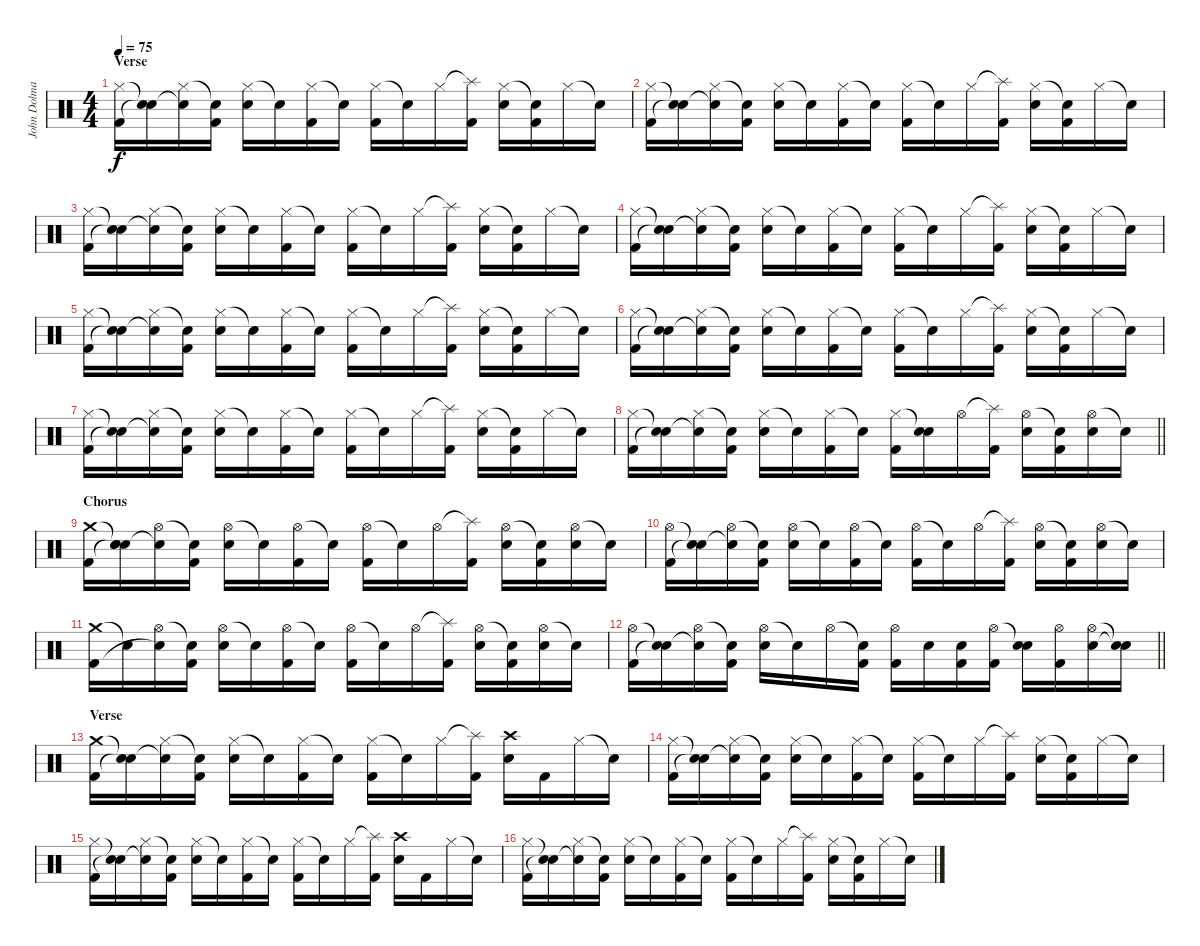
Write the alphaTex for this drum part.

\track ("John Dolmayan (drums)" "John Dolma") {instrument percussion}
\staff
\articulation defaults
\ts (4 4)
\section ("" "Verse")
\tempo 75
\clef neutral
\ks c
("Hi-Hat (closed)" "Kick (hit) 2").16{dy f} ("Snare (hit)"{t} "Snare (hit)"{t}).16 ("Hi-Hat (closed)" "Snare (hit)"{t}).16 ("Snare (hit)"{t} "Kick (hit) 2").16 ("Hi-Hat (closed)" "Electric Snare (hit)").16 "Snare (hit)"{t}.16 ("Hi-Hat (closed)" "Kick (hit) 2").16 "Snare (hit)"{t}.16 ("Hi-Hat (closed)" "Kick (hit) 2").16 "Snare (hit)"{t}.16 "Hi-Hat (closed)".16 ("Splash (hit)"{t} "Kick (hit) 2").16 ("Hi-Hat (closed)" "Electric Snare (hit)").16 ("Snare (hit)"{t} "Kick (hit) 2").16 "Hi-Hat (closed)".16 "Snare (hit)"{t}.16 |
("Hi-Hat (closed)" "Kick (hit) 2").16 ("Snare (hit)"{t} "Snare (hit)"{t}).16 ("Hi-Hat (closed)" "Snare (hit)"{t}).16 ("Snare (hit)"{t} "Kick (hit) 2").16 ("Hi-Hat (closed)" "Electric Snare (hit)").16 "Snare (hit)"{t}.16 ("Hi-Hat (closed)" "Kick (hit) 2").16 "Snare (hit)"{t}.16 ("Hi-Hat (closed)" "Kick (hit) 2").16 "Snare (hit)"{t}.16 "Hi-Hat (closed)".16 ("Splash (hit)"{t} "Kick (hit) 2").16 ("Hi-Hat (closed)" "Electric Snare (hit)").16 ("Snare (hit)"{t} "Kick (hit) 2").16 "Hi-Hat (closed)".16 "Snare (hit)"{t}.16 |
("Hi-Hat (closed)" "Kick (hit) 2").16 ("Snare (hit)"{t} "Snare (hit)"{t}).16 ("Hi-Hat (closed)" "Snare (hit)"{t}).16 ("Snare (hit)"{t} "Kick (hit) 2").16 ("Hi-Hat (closed)" "Electric Snare (hit)").16 "Snare (hit)"{t}.16 ("Hi-Hat (closed)" "Kick (hit) 2").16 "Snare (hit)"{t}.16 ("Hi-Hat (closed)" "Kick (hit) 2").16 "Snare (hit)"{t}.16 "Hi-Hat (closed)".16 ("Splash (hit)"{t} "Kick (hit) 2").16 ("Hi-Hat (closed)" "Electric Snare (hit)").16 ("Snare (hit)"{t} "Kick (hit) 2").16 "Hi-Hat (closed)".16 "Snare (hit)"{t}.16 |
("Hi-Hat (closed)" "Kick (hit) 2").16 ("Snare (hit)"{t} "Snare (hit)"{t}).16 ("Hi-Hat (closed)" "Snare (hit)"{t}).16 ("Snare (hit)"{t} "Kick (hit) 2").16 ("Hi-Hat (closed)" "Electric Snare (hit)").16 "Snare (hit)"{t}.16 ("Hi-Hat (closed)" "Kick (hit) 2").16 "Snare (hit)"{t}.16 ("Hi-Hat (closed)" "Kick (hit) 2").16 "Snare (hit)"{t}.16 "Hi-Hat (closed)".16 ("Splash (hit)"{t} "Kick (hit) 2").16 ("Hi-Hat (closed)" "Electric Snare (hit)").16 ("Snare (hit)"{t} "Kick (hit) 2").16 "Hi-Hat (closed)".16 "Snare (hit)"{t}.16 |
("Hi-Hat (closed)" "Kick (hit) 2").16 ("Snare (hit)"{t} "Snare (hit)"{t}).16 ("Hi-Hat (closed)" "Snare (hit)"{t}).16 ("Snare (hit)"{t} "Kick (hit) 2").16 ("Hi-Hat (closed)" "Electric Snare (hit)").16 "Snare (hit)"{t}.16 ("Hi-Hat (closed)" "Kick (hit) 2").16 "Snare (hit)"{t}.16 ("Hi-Hat (closed)" "Kick (hit) 2").16 "Snare (hit)"{t}.16 "Hi-Hat (closed)".16 ("Splash (hit)"{t} "Kick (hit) 2").16 ("Hi-Hat (closed)" "Electric Snare (hit)").16 ("Snare (hit)"{t} "Kick (hit) 2").16 "Hi-Hat (closed)".16 "Snare (hit)"{t}.16 |
("Hi-Hat (closed)" "Kick (hit) 2").16 ("Snare (hit)"{t} "Snare (hit)"{t}).16 ("Hi-Hat (closed)" "Snare (hit)"{t}).16 ("Snare (hit)"{t} "Kick (hit) 2").16 ("Hi-Hat (closed)" "Electric Snare (hit)").16 "Snare (hit)"{t}.16 ("Hi-Hat (closed)" "Kick (hit) 2").16 "Snare (hit)"{t}.16 ("Hi-Hat (closed)" "Kick (hit) 2").16 "Snare (hit)"{t}.16 "Hi-Hat (closed)".16 ("Splash (hit)"{t} "Kick (hit) 2").16 ("Hi-Hat (closed)" "Electric Snare (hit)").16 ("Snare (hit)"{t} "Kick (hit) 2").16 "Hi-Hat (closed)".16 "Snare (hit)"{t}.16 |
("Hi-Hat (closed)" "Kick (hit) 2").16 ("Snare (hit)"{t} "Snare (hit)"{t}).16 ("Hi-Hat (closed)" "Snare (hit)"{t}).16 ("Snare (hit)"{t} "Kick (hit) 2").16 ("Hi-Hat (closed)" "Electric Snare (hit)").16 "Snare (hit)"{t}.16 ("Hi-Hat (closed)" "Kick (hit) 2").16 "Snare (hit)"{t}.16 ("Hi-Hat (closed)" "Kick (hit) 2").16 "Snare (hit)"{t}.16 "Hi-Hat (closed)".16 ("Splash (hit)"{t} "Kick (hit) 2").16 ("Hi-Hat (closed)" "Electric Snare (hit)").16 ("Snare (hit)"{t} "Kick (hit) 2").16 "Hi-Hat (closed)".16 "Snare (hit)"{t}.16 |
\barLineRight lightlight
("Hi-Hat (closed)" "Kick (hit) 2").16 ("Snare (hit)"{t} "Snare (hit)"{t}).16 ("Hi-Hat (closed)" "Snare (hit)"{t}).16 ("Snare (hit)"{t} "Kick (hit) 2").16 ("Hi-Hat (closed)" "Electric Snare (hit)").16 "Snare (hit)"{t}.16 ("Hi-Hat (closed)" "Kick (hit) 2").16 "Snare (hit)"{t}.16 ("Hi-Hat (closed)" "Kick (hit) 2").16 ("Snare (hit)"{t} "Electric Snare (hit)").16 "Hi-Hat (open)".16 ("Splash (hit)"{t} "Kick (hit) 2").16 ("Hi-Hat (open)" "Electric Snare (hit)").16 ("Snare (hit)"{t} "Kick (hit) 2").16 ("Hi-Hat (open)" "Electric Snare (hit)").16 "Snare (hit)"{t}.16 |
\section ("" "Chorus")
("Crash medium (hit)" "Kick (hit) 2").16 ("Snare (hit)"{t} "Snare (hit)"{t} "Snare (hit)").16 ("Hi-Hat (open)" "Snare (hit)"{t}).16 ("Snare (hit)"{t} "Kick (hit) 2").16 ("Hi-Hat (open)" "Electric Snare (hit)").16 "Snare (hit)"{t}.16 ("Hi-Hat (open)" "Kick (hit) 2").16 "Snare (hit)"{t}.16 ("Hi-Hat (open)" "Kick (hit) 2").16 "Snare (hit)"{t}.16 "Hi-Hat (open)".16 ("Splash (hit)"{t} "Kick (hit) 2").16 ("Hi-Hat (open)" "Electric Snare (hit)").16 ("Snare (hit)"{t} "Kick (hit) 2").16 ("Hi-Hat (open)" "Electric Snare (hit)").16 "Snare (hit)"{t}.16 |
("Hi-Hat (open)" "Kick (hit) 2").16 ("Snare (hit)"{t} "Snare (hit)"{t}).16 ("Hi-Hat (open)" "Snare (hit)"{t}).16 ("Snare (hit)"{t} "Kick (hit) 2").16 ("Hi-Hat (open)" "Electric Snare (hit)").16 "Snare (hit)"{t}.16 ("Hi-Hat (open)" "Kick (hit) 2").16 "Snare (hit)"{t}.16 ("Hi-Hat (open)" "Kick (hit) 2").16 "Snare (hit)"{t}.16 "Hi-Hat (open)".16 ("Splash (hit)"{t} "Kick (hit) 2").16 ("Hi-Hat (open)" "Electric Snare (hit)").16 ("Snare (hit)"{t} "Kick (hit) 2").16 ("Hi-Hat (open)" "Electric Snare (hit)").16 "Snare (hit)"{t}.16 |
("Crash medium (hit)" "Kick (hit) 2").16 "Snare (hit)"{t}.16 ("Hi-Hat (open)" "Snare (hit)"{t}).16 ("Snare (hit)"{t} "Kick (hit) 2").16 ("Hi-Hat (open)" "Electric Snare (hit)").16 "Snare (hit)"{t}.16 ("Hi-Hat (open)" "Kick (hit) 2").16 "Snare (hit)"{t}.16 ("Hi-Hat (open)" "Kick (hit) 2").16 "Snare (hit)"{t}.16 "Hi-Hat (open)".16 ("Splash (hit)"{t} "Kick (hit) 2").16 ("Hi-Hat (open)" "Electric Snare (hit)").16 ("Snare (hit)"{t} "Kick (hit) 2").16 ("Hi-Hat (open)" "Electric Snare (hit)").16 "Snare (hit)"{t}.16 |
\barLineRight lightlight
("Hi-Hat (open)" "Kick (hit) 2").16 ("Snare (hit)"{t} "Snare (hit)"{t}).16 ("Hi-Hat (open)" "Snare (hit)"{t}).16 ("Snare (hit)"{t} "Kick (hit) 2").16 ("Hi-Hat (open)" "Electric Snare (hit)").16 "Snare (hit)"{t}.16 "Hi-Hat (open)".16 ("Snare (hit)"{t} "Kick (hit) 2").16 ("Hi-Hat (open)" "Kick (hit) 2").16 "Electric Snare (hit)".16 ("Electric Snare (hit)" "Kick (hit) 2").16 ("Hi-Hat (open)" "Kick (hit) 2").16 ("Snare (hit)"{t} "Electric Snare (hit)").16 ("Hi-Hat (open)" "Kick (hit) 2").16 ("Hi-Hat (open)" "Electric Snare (hit)").16 ("Snare (hit)"{t} "Electric Snare (hit)"{t}).16 |
\section ("" "Verse")
("Crash medium (hit)" "Kick (hit) 2").16 ("Snare (hit)"{t} "Snare (hit)"{t}).16 ("Hi-Hat (closed)" "Snare (hit)"{t}).16 ("Snare (hit)"{t} "Kick (hit) 2").16 ("Hi-Hat (closed)" "Electric Snare (hit)").16 "Snare (hit)"{t}.16 ("Hi-Hat (closed)" "Kick (hit) 2").16 "Snare (hit)"{t}.16 ("Hi-Hat (closed)" "Kick (hit) 2").16 "Snare (hit)"{t}.16 "Hi-Hat (closed)".16 ("Splash (hit)"{t} "Kick (hit) 2").16 ("Crash high (hit)" "Electric Snare (hit)").16 "Kick (hit) 2".16 "Hi-Hat (closed)".16 "Snare (hit)"{t}.16 |
("Hi-Hat (closed)" "Kick (hit) 2").16 ("Snare (hit)"{t} "Snare (hit)"{t}).16 ("Hi-Hat (closed)" "Snare (hit)"{t}).16 ("Snare (hit)"{t} "Kick (hit) 2").16 ("Hi-Hat (closed)" "Electric Snare (hit)").16 "Snare (hit)"{t}.16 ("Hi-Hat (closed)" "Kick (hit) 2").16 "Snare (hit)"{t}.16 ("Hi-Hat (closed)" "Kick (hit) 2").16 "Snare (hit)"{t}.16 "Hi-Hat (closed)".16 ("Splash (hit)"{t} "Kick (hit) 2").16 ("Hi-Hat (closed)" "Electric Snare (hit)").16 ("Snare (hit)"{t} "Kick (hit) 2").16 "Hi-Hat (closed)".16 "Snare (hit)"{t}.16 |
("Hi-Hat (closed)" "Kick (hit) 2").16 ("Snare (hit)"{t} "Snare (hit)"{t}).16 ("Hi-Hat (closed)" "Snare (hit)"{t}).16 ("Snare (hit)"{t} "Kick (hit) 2").16 ("Hi-Hat (closed)" "Electric Snare (hit)").16 "Snare (hit)"{t}.16 ("Hi-Hat (closed)" "Kick (hit) 2").16 "Snare (hit)"{t}.16 ("Hi-Hat (closed)" "Kick (hit) 2").16 "Snare (hit)"{t}.16 "Hi-Hat (closed)".16 ("Splash (hit)"{t} "Kick (hit) 2").16 ("Crash high (hit)" "Electric Snare (hit)").16 "Kick (hit) 2".16 "Hi-Hat (closed)".16 "Snare (hit)"{t}.16 |
("Hi-Hat (closed)" "Kick (hit) 2").16 ("Snare (hit)"{t} "Snare (hit)"{t}).16 ("Hi-Hat (closed)" "Snare (hit)"{t}).16 ("Snare (hit)"{t} "Kick (hit) 2").16 ("Hi-Hat (closed)" "Electric Snare (hit)").16 "Snare (hit)"{t}.16 ("Hi-Hat (closed)" "Kick (hit) 2").16 "Snare (hit)"{t}.16 ("Hi-Hat (closed)" "Kick (hit) 2").16 "Snare (hit)"{t}.16 "Hi-Hat (closed)".16 ("Splash (hit)"{t} "Kick (hit) 2").16 ("Hi-Hat (closed)" "Electric Snare (hit)").16 ("Snare (hit)"{t} "Kick (hit) 2").16 "Hi-Hat (closed)".16 "Snare (hit)"{t}.16
